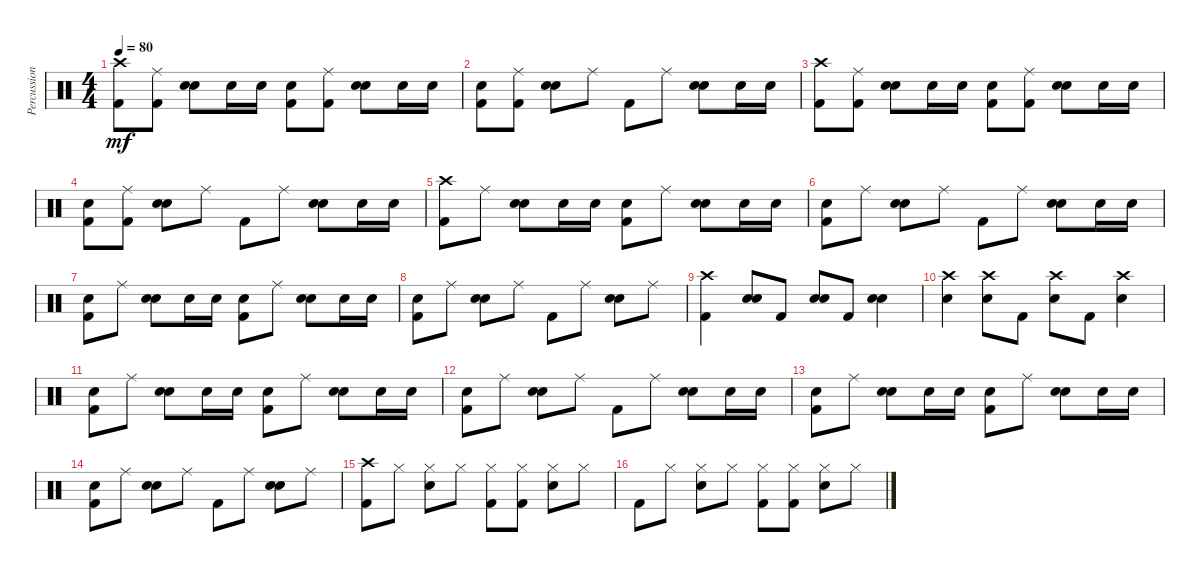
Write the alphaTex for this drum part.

\track ("Percussions" "Percussion") {instrument percussion}
\staff {score}
\articulation defaults
\ts (4 4)
\tempo 80
\clef neutral
\ks c
("Crash high (hit)" "Kick (hit) 2").8{dy mf} ("Ride (middle)" "Kick (hit) 2").8 ("Snare (hit) 2" "Electric Snare (hit)").8 "Snare (hit) 2".16 "Snare (hit) 2".16 ("Snare (hit) 2" "Kick (hit) 2").8 ("Ride (middle)" "Kick (hit) 2").8 ("Snare (hit) 2" "Electric Snare (hit)").8 "Snare (hit) 2".16 "Snare (hit) 2".16 |
("Snare (hit) 2" "Kick (hit) 2").8 ("Ride (middle)" "Kick (hit) 2").8 ("Snare (hit) 2" "Electric Snare (hit)").8 "Ride (middle)".8 "Kick (hit) 2".8 "Ride (middle)".8 ("Snare (hit) 2" "Electric Snare (hit)").8 "Snare (hit) 2".16 "Snare (hit) 2".16 |
("Crash high (hit)" "Kick (hit) 2").8 ("Ride (middle)" "Kick (hit) 2").8 ("Snare (hit) 2" "Electric Snare (hit)").8 "Snare (hit) 2".16 "Snare (hit) 2".16 ("Snare (hit) 2" "Kick (hit) 2").8 ("Ride (middle)" "Kick (hit) 2").8 ("Snare (hit) 2" "Electric Snare (hit)").8 "Snare (hit) 2".16 "Snare (hit) 2".16 |
("Snare (hit) 2" "Kick (hit) 2").8 ("Ride (middle)" "Kick (hit) 2").8 ("Snare (hit) 2" "Electric Snare (hit)").8 "Ride (middle)".8 "Kick (hit) 2".8 "Ride (middle)".8 ("Snare (hit) 2" "Electric Snare (hit)").8 "Snare (hit) 2".16 "Snare (hit) 2".16 |
("Crash high (hit)" "Kick (hit) 2").8 "Ride (middle)".8 ("Snare (hit) 2" "Electric Snare (hit)").8 "Snare (hit) 2".16 "Snare (hit) 2".16 ("Snare (hit) 2" "Kick (hit) 2").8 "Ride (middle)".8 ("Snare (hit) 2" "Electric Snare (hit)").8 "Snare (hit) 2".16 "Snare (hit) 2".16 |
("Snare (hit) 2" "Kick (hit) 2").8 "Ride (middle)".8 ("Snare (hit) 2" "Electric Snare (hit)").8 "Ride (middle)".8 "Kick (hit) 2".8 "Ride (middle)".8 ("Snare (hit) 2" "Electric Snare (hit)").8 "Snare (hit) 2".16 "Snare (hit) 2".16 |
("Snare (hit) 2" "Kick (hit) 2").8 "Ride (middle)".8 ("Snare (hit) 2" "Electric Snare (hit)").8 "Snare (hit) 2".16 "Snare (hit) 2".16 ("Snare (hit) 2" "Kick (hit) 2").8 "Ride (middle)".8 ("Snare (hit) 2" "Electric Snare (hit)").8 "Snare (hit) 2".16 "Snare (hit) 2".16 |
("Snare (hit) 2" "Kick (hit) 2").8 "Ride (middle)".8 ("Snare (hit) 2" "Electric Snare (hit)").8 "Ride (middle)".8 "Kick (hit) 2".8 "Ride (middle)".8 ("Snare (hit) 2" "Electric Snare (hit)").8 "Ride (middle)".8 |
("Crash high (hit)" "Kick (hit) 2").4 ("Electric Snare (hit)" "Electric Snare (hit)").8 "Kick (hit) 2".8 ("Electric Snare (hit)" "Electric Snare (hit)").8 "Kick (hit) 2".8 ("Electric Snare (hit)" "Electric Snare (hit)").4 |
("Crash high (hit)" "Electric Snare (hit)").4 ("Crash high (hit)" "Electric Snare (hit)").8 "Kick (hit) 2".8 ("Crash high (hit)" "Electric Snare (hit)").8 "Kick (hit) 2".8 ("Crash high (hit)" "Electric Snare (hit)").4 |
("Snare (hit) 2" "Kick (hit) 2").8 "Ride (middle)".8 ("Snare (hit) 2" "Electric Snare (hit)").8 "Snare (hit) 2".16 "Snare (hit) 2".16 ("Snare (hit) 2" "Kick (hit) 2").8 "Ride (middle)".8 ("Snare (hit) 2" "Electric Snare (hit)").8 "Snare (hit) 2".16 "Snare (hit) 2".16 |
("Snare (hit) 2" "Kick (hit) 2").8 "Ride (middle)".8 ("Snare (hit) 2" "Electric Snare (hit)").8 "Ride (middle)".8 "Kick (hit) 2".8 "Ride (middle)".8 ("Snare (hit) 2" "Electric Snare (hit)").8 "Snare (hit) 2".16 "Snare (hit) 2".16 |
("Snare (hit) 2" "Kick (hit) 2").8 "Ride (middle)".8 ("Snare (hit) 2" "Electric Snare (hit)").8 "Snare (hit) 2".16 "Snare (hit) 2".16 ("Snare (hit) 2" "Kick (hit) 2").8 "Ride (middle)".8 ("Snare (hit) 2" "Electric Snare (hit)").8 "Snare (hit) 2".16 "Snare (hit) 2".16 |
("Snare (hit) 2" "Kick (hit) 2").8 "Ride (middle)".8 ("Snare (hit) 2" "Electric Snare (hit)").8 "Ride (middle)".8 "Kick (hit) 2".8 "Ride (middle)".8 ("Snare (hit) 2" "Electric Snare (hit)").8 "Ride (middle)".8 |
("Crash high (hit)" "Kick (hit) 2").8 "Hi-Hat (closed)".8 ("Hi-Hat (closed)" "Electric Snare (hit)").8 "Hi-Hat (closed)".8 ("Hi-Hat (closed)" "Kick (hit) 2").8 ("Hi-Hat (closed)" "Kick (hit) 2").8 ("Hi-Hat (closed)" "Electric Snare (hit)").8 "Hi-Hat (closed)".8 |
"Kick (hit) 2".8 "Hi-Hat (closed)".8 ("Hi-Hat (closed)" "Electric Snare (hit)").8 "Hi-Hat (closed)".8 ("Hi-Hat (closed)" "Kick (hit) 2").8 ("Hi-Hat (closed)" "Kick (hit) 2").8 ("Hi-Hat (closed)" "Electric Snare (hit)").8 "Hi-Hat (closed)".8
